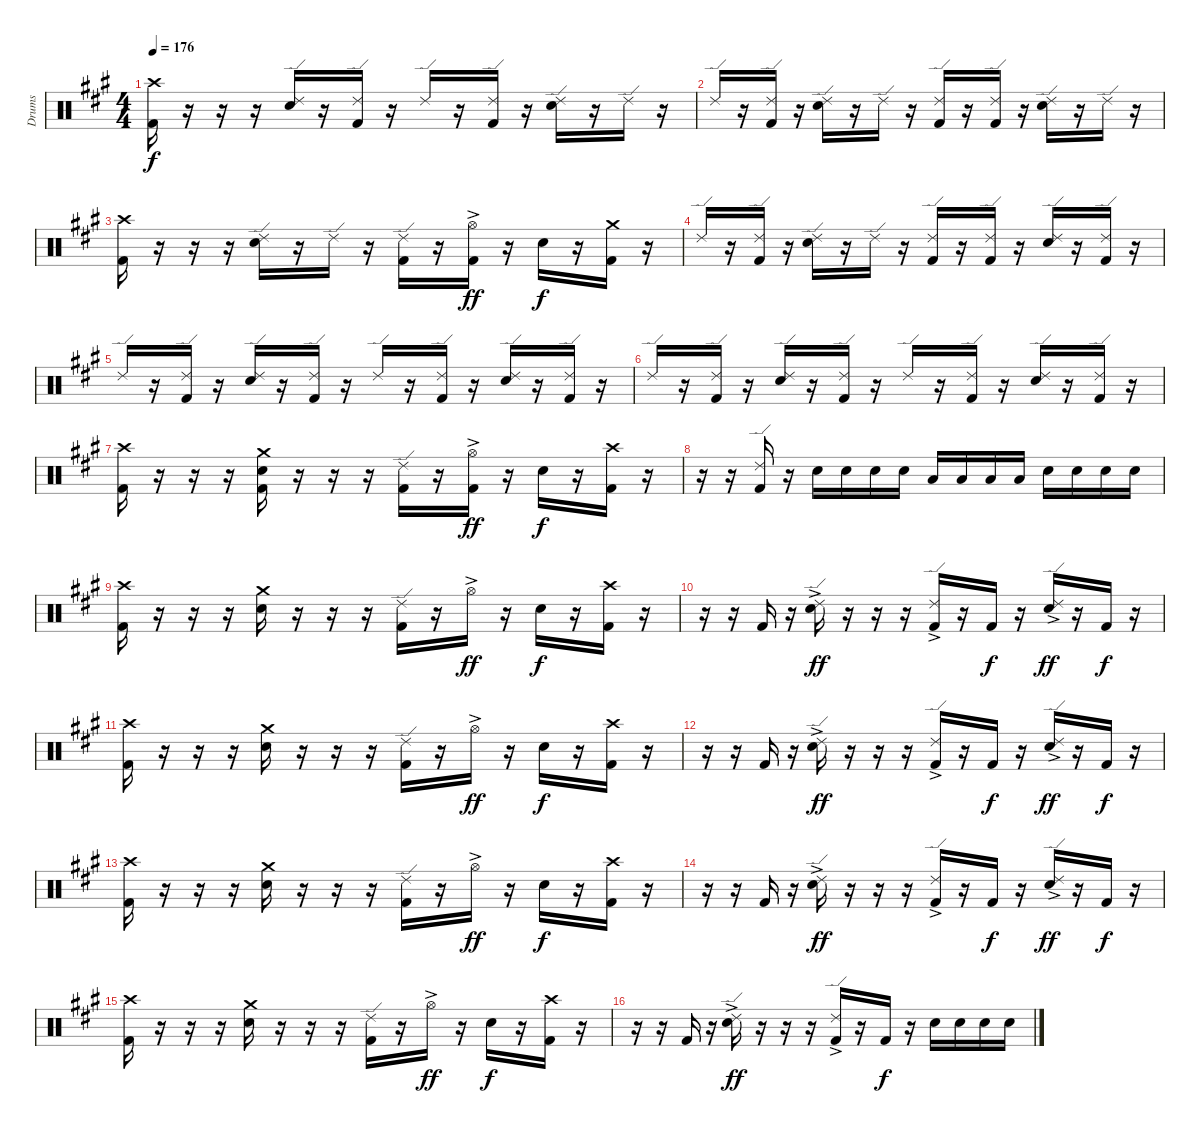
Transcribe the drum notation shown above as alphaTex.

\track ("Drums" "Drums") {instrument percussion}
\staff {score}
\articulation defaults
\ts (4 4)
\tempo 176
\clef neutral
\ks a
("Crash high (hit)" "Kick (hit) 2").16{dy f} r.16 r.16 r.16 ("Ride (edge) 2" "Electric Snare (hit)").16 r.16 ("Ride (edge) 2" "Kick (hit) 2").16 r.16 "Ride (edge) 2".16 r.16 ("Ride (edge) 2" "Kick (hit) 2").16 r.16 ("Ride (edge) 2" "Electric Snare (hit)").16 r.16 "Ride (edge) 2".16 r.16 |
"Ride (edge) 2".16 r.16 ("Ride (edge) 2" "Kick (hit) 2").16 r.16 ("Ride (edge) 2" "Electric Snare (hit)").16 r.16 "Ride (edge) 2".16 r.16 ("Ride (edge) 2" "Kick (hit) 2").16 r.16 ("Ride (edge) 2" "Kick (hit) 2").16 r.16 ("Ride (edge) 2" "Electric Snare (hit)").16 r.16 "Ride (edge) 2".16 r.16 |
("Crash high (hit)" "Kick (hit) 2").16 r.16 r.16 r.16 ("Ride (edge) 2" "Electric Snare (hit)").16 r.16 "Ride (edge) 2".16 r.16 ("Ride (edge) 2" "Kick (hit) 2").16 r.16 ("Hi-Hat (open)"{ac} "Kick (hit) 2").16{dy ff} r.16 "Electric Snare (hit)".16{dy f} r.16 ("Crash medium (hit)" "Kick (hit) 2").16 r.16 |
"Ride (edge) 2".16 r.16 ("Ride (edge) 2" "Kick (hit) 2").16 r.16 ("Ride (edge) 2" "Electric Snare (hit)").16 r.16 "Ride (edge) 2".16 r.16 ("Ride (edge) 2" "Kick (hit) 2").16 r.16 ("Ride (edge) 2" "Kick (hit) 2").16 r.16 ("Ride (edge) 2" "Electric Snare (hit)").16 r.16 ("Ride (edge) 2" "Kick (hit) 2").16 r.16 |
"Ride (edge) 2".16 r.16 ("Ride (edge) 2" "Kick (hit) 2").16 r.16 ("Ride (edge) 2" "Electric Snare (hit)").16 r.16 ("Ride (edge) 2" "Kick (hit) 2").16 r.16 "Ride (edge) 2".16 r.16 ("Ride (edge) 2" "Kick (hit) 2").16 r.16 ("Ride (edge) 2" "Electric Snare (hit)").16 r.16 ("Ride (edge) 2" "Kick (hit) 2").16 r.16 |
"Ride (edge) 2".16 r.16 ("Ride (edge) 2" "Kick (hit) 2").16 r.16 ("Ride (edge) 2" "Electric Snare (hit)").16 r.16 ("Ride (edge) 2" "Kick (hit) 2").16 r.16 "Ride (edge) 2".16 r.16 ("Ride (edge) 2" "Kick (hit) 2").16 r.16 ("Ride (edge) 2" "Electric Snare (hit)").16 r.16 ("Ride (edge) 2" "Kick (hit) 2").16 r.16 |
("Crash high (hit)" "Kick (hit) 2").16 r.16 r.16 r.16 ("Crash medium (hit)" "Electric Snare (hit)" "Kick (hit) 2").16 r.16 r.16 r.16 ("Ride (edge) 2" "Kick (hit) 2").16 r.16 ("Hi-Hat (open)"{ac} "Kick (hit) 2").16{dy ff} r.16 "Electric Snare (hit)".16{dy f} r.16 ("Crash high (hit)" "Kick (hit) 2").16 r.16 |
r.16 r.16 ("Ride (edge) 2" "Kick (hit) 2").16 r.16 "Electric Snare (hit)".16 "Electric Snare (hit)".16 "Electric Snare (hit)".16 "Electric Snare (hit)".16 "Low Tom (hit)".16 "Low Tom (hit)".16 "Low Tom (hit)".16 "Low Tom (hit)".16 "Electric Snare (hit)".16 "Electric Snare (hit)".16 "Electric Snare (hit)".16 "Electric Snare (hit)".16 |
("Crash high (hit)" "Kick (hit) 2").16 r.16 r.16 r.16 ("Crash medium (hit)" "Electric Snare (hit)").16 r.16 r.16 r.16 ("Ride (edge) 2" "Kick (hit) 2").16 r.16 "Hi-Hat (open)"{ac}.16{dy ff} r.16 "Electric Snare (hit)".16{dy f} r.16 ("Crash high (hit)" "Kick (hit) 2").16 r.16 |
r.16 r.16 "Kick (hit) 2".16 r.16 ("Ride (edge) 2"{ac} "Electric Snare (hit)").16{dy ff} r.16 r.16 r.16 ("Ride (edge) 2"{ac} "Kick (hit) 2").16 r.16 "Kick (hit) 2".16{dy f} r.16 ("Ride (edge) 2"{ac} "Electric Snare (hit)").16{dy ff} r.16 "Kick (hit) 2".16{dy f} r.16 |
("Crash high (hit)" "Kick (hit) 2").16 r.16 r.16 r.16 ("Crash medium (hit)" "Electric Snare (hit)").16 r.16 r.16 r.16 ("Ride (edge) 2" "Kick (hit) 2").16 r.16 "Hi-Hat (open)"{ac}.16{dy ff} r.16 "Electric Snare (hit)".16{dy f} r.16 ("Crash high (hit)" "Kick (hit) 2").16 r.16 |
r.16 r.16 "Kick (hit) 2".16 r.16 ("Ride (edge) 2"{ac} "Electric Snare (hit)").16{dy ff} r.16 r.16 r.16 ("Ride (edge) 2"{ac} "Kick (hit) 2").16 r.16 "Kick (hit) 2".16{dy f} r.16 ("Ride (edge) 2"{ac} "Electric Snare (hit)").16{dy ff} r.16 "Kick (hit) 2".16{dy f} r.16 |
("Crash high (hit)" "Kick (hit) 2").16 r.16 r.16 r.16 ("Crash medium (hit)" "Electric Snare (hit)").16 r.16 r.16 r.16 ("Ride (edge) 2" "Kick (hit) 2").16 r.16 "Hi-Hat (open)"{ac}.16{dy ff} r.16 "Electric Snare (hit)".16{dy f} r.16 ("Crash high (hit)" "Kick (hit) 2").16 r.16 |
r.16 r.16 "Kick (hit) 2".16 r.16 ("Ride (edge) 2"{ac} "Electric Snare (hit)").16{dy ff} r.16 r.16 r.16 ("Ride (edge) 2"{ac} "Kick (hit) 2").16 r.16 "Kick (hit) 2".16{dy f} r.16 ("Ride (edge) 2"{ac} "Electric Snare (hit)").16{dy ff} r.16 "Kick (hit) 2".16{dy f} r.16 |
("Crash high (hit)" "Kick (hit) 2").16 r.16 r.16 r.16 ("Crash medium (hit)" "Electric Snare (hit)").16 r.16 r.16 r.16 ("Ride (edge) 2" "Kick (hit) 2").16 r.16 "Hi-Hat (open)"{ac}.16{dy ff} r.16 "Electric Snare (hit)".16{dy f} r.16 ("Crash high (hit)" "Kick (hit) 2").16 r.16 |
r.16 r.16 "Kick (hit) 2".16 r.16 ("Ride (edge) 2"{ac} "Electric Snare (hit)").16{dy ff} r.16 r.16 r.16 ("Ride (edge) 2"{ac} "Kick (hit) 2").16 r.16 "Kick (hit) 2".16{dy f} r.16 "Electric Snare (hit)".16 "Electric Snare (hit)".16 "Electric Snare (hit)".16 "Electric Snare (hit)".16
